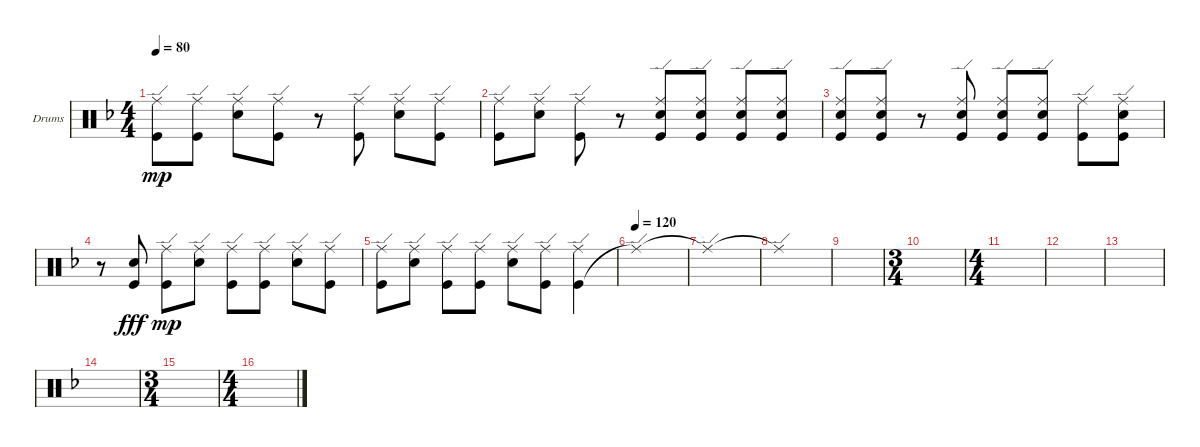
\defaultSystemsLayout 4
\bracketExtendMode groupsimilarinstruments
\firstSystemTrackNameOrientation horizontal
\otherSystemsTrackNameOrientation horizontal
\track ("Drumkit" "Drums") {instrument percussion}
\staff {score}
\articulation defaults
\ts (4 4)
\tempo 80
\clef neutral
\ks f
("Kick (hit)" "Ride (edge)").8{dy mp} ("Kick (hit)" "Ride (edge)").8 ("Ride (edge)" "Snare (hit) 2").8 ("Kick (hit)" "Ride (edge)").8 r.8 ("Kick (hit)" "Ride (edge)").8 ("Ride (edge)" "Snare (hit) 2").8 ("Kick (hit)" "Ride (edge)").8 |
("Kick (hit)" "Ride (edge)").8 ("Ride (edge)" "Snare (hit) 2").8 ("Kick (hit)" "Ride (edge)").8 r.8 ("Kick (hit)" "Ride (edge)" "Snare (hit) 2").8 ("Kick (hit)" "Ride (edge)" "Snare (hit) 2").8 ("Kick (hit)" "Ride (edge)" "Snare (hit) 2").8 ("Kick (hit)" "Ride (edge)" "Snare (hit) 2").8 |
("Kick (hit)" "Ride (edge)" "Snare (hit) 2").8 ("Kick (hit)" "Ride (edge)" "Snare (hit) 2").8 r.8 ("Kick (hit)" "Ride (edge)" "Snare (hit) 2").8 ("Kick (hit)" "Ride (edge)" "Snare (hit) 2").8 ("Kick (hit)" "Ride (edge)" "Snare (hit) 2").8 ("Kick (hit)" "Ride (edge)").8 ("Kick (hit)" "Ride (edge)" "Snare (hit) 2").8 |
r.8 ("Kick (hit)" "Snare (hit) 2").8{dy fff} ("Kick (hit)" "Ride (edge)").8{dy mp} ("Ride (edge)" "Snare (hit) 2").8 ("Kick (hit)" "Ride (edge)").8 ("Kick (hit)" "Ride (edge)").8 ("Ride (edge)" "Snare (hit) 2").8 ("Kick (hit)" "Ride (edge)").8 |
("Kick (hit)" "Ride (edge)").8 ("Ride (edge)" "Snare (hit) 2").8 ("Kick (hit)" "Ride (edge)").8 ("Kick (hit)" "Ride (edge)").8 ("Ride (edge)" "Snare (hit) 2").8 ("Kick (hit)" "Ride (edge)").8 ("Kick (hit)" "Ride (edge)").4 |
\tempo (120)
"Ride (edge)"{t}.1 |
"Ride (edge)"{t}.1 |
"Ride (edge)"{t}.1 |
|
\ts (3 4)
|
\ts (4 4)
|
|
|
|
\ts (3 4)
|
\ts (4 4)
